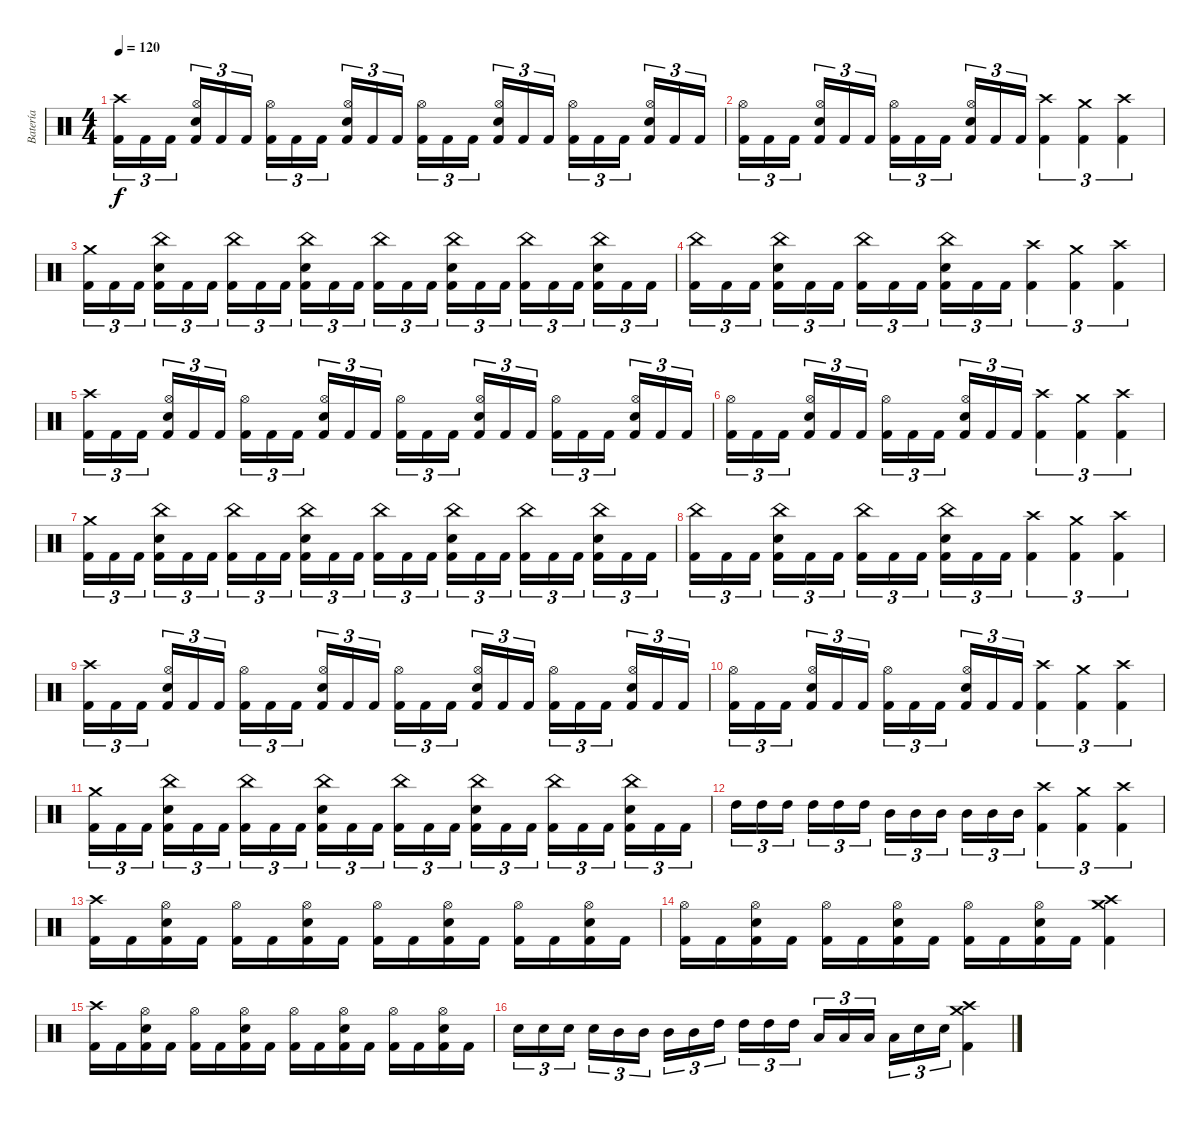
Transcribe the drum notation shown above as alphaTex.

\track ("Batería" "Batería") {instrument percussion}
\staff {score}
\articulation defaults
\ts (4 4)
\tempo 120
\clef neutral
\ks c
("Kick (hit) 2" "Crash high (hit)").16{tu (3 2) dy f} "Kick (hit) 2".16{tu (3 2)} "Kick (hit) 2".16{tu (3 2)} ("Kick (hit) 2" "Hi-Hat (open)" "Snare (hit) 2").16{tu (3 2)} "Kick (hit) 2".16{tu (3 2)} "Kick (hit) 2".16{tu (3 2)} ("Kick (hit) 2" "Hi-Hat (open)").16{tu (3 2)} "Kick (hit) 2".16{tu (3 2)} "Kick (hit) 2".16{tu (3 2)} ("Kick (hit) 2" "Hi-Hat (open)" "Snare (hit) 2").16{tu (3 2)} "Kick (hit) 2".16{tu (3 2)} "Kick (hit) 2".16{tu (3 2)} ("Kick (hit) 2" "Hi-Hat (open)").16{tu (3 2)} "Kick (hit) 2".16{tu (3 2)} "Kick (hit) 2".16{tu (3 2)} ("Kick (hit) 2" "Hi-Hat (open)" "Snare (hit) 2").16{tu (3 2)} "Kick (hit) 2".16{tu (3 2)} "Kick (hit) 2".16{tu (3 2)} ("Kick (hit) 2" "Hi-Hat (open)").16{tu (3 2)} "Kick (hit) 2".16{tu (3 2)} "Kick (hit) 2".16{tu (3 2)} ("Kick (hit) 2" "Hi-Hat (open)" "Snare (hit) 2").16{tu (3 2)} "Kick (hit) 2".16{tu (3 2)} "Kick (hit) 2".16{tu (3 2)} |
("Kick (hit) 2" "Hi-Hat (open)").16{tu (3 2)} "Kick (hit) 2".16{tu (3 2)} "Kick (hit) 2".16{tu (3 2)} ("Kick (hit) 2" "Hi-Hat (open)" "Snare (hit) 2").16{tu (3 2)} "Kick (hit) 2".16{tu (3 2)} "Kick (hit) 2".16{tu (3 2)} ("Kick (hit) 2" "Hi-Hat (open)").16{tu (3 2)} "Kick (hit) 2".16{tu (3 2)} "Kick (hit) 2".16{tu (3 2)} ("Kick (hit) 2" "Hi-Hat (open)" "Snare (hit) 2").16{tu (3 2)} "Kick (hit) 2".16{tu (3 2)} "Kick (hit) 2".16{tu (3 2)} ("Crash high (hit)" "Kick (hit) 2").4{tu (3 2)} ("Crash medium (hit)" "Kick (hit) 2").4{tu (3 2)} ("Crash high (hit)" "Kick (hit) 2").4{tu (3 2)} |
("Kick (hit) 2" "Crash medium (hit)").16{tu (3 2)} "Kick (hit) 2".16{tu (3 2)} "Kick (hit) 2".16{tu (3 2)} ("Kick (hit) 2" "China (hit)" "Snare (hit) 2").16{tu (3 2)} "Kick (hit) 2".16{tu (3 2)} "Kick (hit) 2".16{tu (3 2)} ("Kick (hit) 2" "China (hit)").16{tu (3 2)} "Kick (hit) 2".16{tu (3 2)} "Kick (hit) 2".16{tu (3 2)} ("Kick (hit) 2" "China (hit)" "Snare (hit) 2").16{tu (3 2)} "Kick (hit) 2".16{tu (3 2)} "Kick (hit) 2".16{tu (3 2)} ("Kick (hit) 2" "China (hit)").16{tu (3 2)} "Kick (hit) 2".16{tu (3 2)} "Kick (hit) 2".16{tu (3 2)} ("Kick (hit) 2" "China (hit)" "Snare (hit) 2").16{tu (3 2)} "Kick (hit) 2".16{tu (3 2)} "Kick (hit) 2".16{tu (3 2)} ("Kick (hit) 2" "China (hit)").16{tu (3 2)} "Kick (hit) 2".16{tu (3 2)} "Kick (hit) 2".16{tu (3 2)} ("Kick (hit) 2" "China (hit)" "Snare (hit) 2").16{tu (3 2)} "Kick (hit) 2".16{tu (3 2)} "Kick (hit) 2".16{tu (3 2)} |
("Kick (hit) 2" "China (hit)").16{tu (3 2)} "Kick (hit) 2".16{tu (3 2)} "Kick (hit) 2".16{tu (3 2)} ("Kick (hit) 2" "China (hit)" "Snare (hit) 2").16{tu (3 2)} "Kick (hit) 2".16{tu (3 2)} "Kick (hit) 2".16{tu (3 2)} ("Kick (hit) 2" "China (hit)").16{tu (3 2)} "Kick (hit) 2".16{tu (3 2)} "Kick (hit) 2".16{tu (3 2)} ("Kick (hit) 2" "China (hit)" "Snare (hit) 2").16{tu (3 2)} "Kick (hit) 2".16{tu (3 2)} "Kick (hit) 2".16{tu (3 2)} ("Crash high (hit)" "Kick (hit) 2").4{tu (3 2)} ("Crash medium (hit)" "Kick (hit) 2").4{tu (3 2)} ("Crash high (hit)" "Kick (hit) 2").4{tu (3 2)} |
("Kick (hit) 2" "Crash high (hit)").16{tu (3 2)} "Kick (hit) 2".16{tu (3 2)} "Kick (hit) 2".16{tu (3 2)} ("Kick (hit) 2" "Hi-Hat (open)" "Snare (hit) 2").16{tu (3 2)} "Kick (hit) 2".16{tu (3 2)} "Kick (hit) 2".16{tu (3 2)} ("Kick (hit) 2" "Hi-Hat (open)").16{tu (3 2)} "Kick (hit) 2".16{tu (3 2)} "Kick (hit) 2".16{tu (3 2)} ("Kick (hit) 2" "Hi-Hat (open)" "Snare (hit) 2").16{tu (3 2)} "Kick (hit) 2".16{tu (3 2)} "Kick (hit) 2".16{tu (3 2)} ("Kick (hit) 2" "Hi-Hat (open)").16{tu (3 2)} "Kick (hit) 2".16{tu (3 2)} "Kick (hit) 2".16{tu (3 2)} ("Kick (hit) 2" "Hi-Hat (open)" "Snare (hit) 2").16{tu (3 2)} "Kick (hit) 2".16{tu (3 2)} "Kick (hit) 2".16{tu (3 2)} ("Kick (hit) 2" "Hi-Hat (open)").16{tu (3 2)} "Kick (hit) 2".16{tu (3 2)} "Kick (hit) 2".16{tu (3 2)} ("Kick (hit) 2" "Hi-Hat (open)" "Snare (hit) 2").16{tu (3 2)} "Kick (hit) 2".16{tu (3 2)} "Kick (hit) 2".16{tu (3 2)} |
("Kick (hit) 2" "Hi-Hat (open)").16{tu (3 2)} "Kick (hit) 2".16{tu (3 2)} "Kick (hit) 2".16{tu (3 2)} ("Kick (hit) 2" "Hi-Hat (open)" "Snare (hit) 2").16{tu (3 2)} "Kick (hit) 2".16{tu (3 2)} "Kick (hit) 2".16{tu (3 2)} ("Kick (hit) 2" "Hi-Hat (open)").16{tu (3 2)} "Kick (hit) 2".16{tu (3 2)} "Kick (hit) 2".16{tu (3 2)} ("Kick (hit) 2" "Hi-Hat (open)" "Snare (hit) 2").16{tu (3 2)} "Kick (hit) 2".16{tu (3 2)} "Kick (hit) 2".16{tu (3 2)} ("Crash high (hit)" "Kick (hit) 2").4{tu (3 2)} ("Crash medium (hit)" "Kick (hit) 2").4{tu (3 2)} ("Crash high (hit)" "Kick (hit) 2").4{tu (3 2)} |
("Kick (hit) 2" "Crash medium (hit)").16{tu (3 2)} "Kick (hit) 2".16{tu (3 2)} "Kick (hit) 2".16{tu (3 2)} ("Kick (hit) 2" "China (hit)" "Snare (hit) 2").16{tu (3 2)} "Kick (hit) 2".16{tu (3 2)} "Kick (hit) 2".16{tu (3 2)} ("Kick (hit) 2" "China (hit)").16{tu (3 2)} "Kick (hit) 2".16{tu (3 2)} "Kick (hit) 2".16{tu (3 2)} ("Kick (hit) 2" "China (hit)" "Snare (hit) 2").16{tu (3 2)} "Kick (hit) 2".16{tu (3 2)} "Kick (hit) 2".16{tu (3 2)} ("Kick (hit) 2" "China (hit)").16{tu (3 2)} "Kick (hit) 2".16{tu (3 2)} "Kick (hit) 2".16{tu (3 2)} ("Kick (hit) 2" "China (hit)" "Snare (hit) 2").16{tu (3 2)} "Kick (hit) 2".16{tu (3 2)} "Kick (hit) 2".16{tu (3 2)} ("Kick (hit) 2" "China (hit)").16{tu (3 2)} "Kick (hit) 2".16{tu (3 2)} "Kick (hit) 2".16{tu (3 2)} ("Kick (hit) 2" "China (hit)" "Snare (hit) 2").16{tu (3 2)} "Kick (hit) 2".16{tu (3 2)} "Kick (hit) 2".16{tu (3 2)} |
("Kick (hit) 2" "China (hit)").16{tu (3 2)} "Kick (hit) 2".16{tu (3 2)} "Kick (hit) 2".16{tu (3 2)} ("Kick (hit) 2" "China (hit)" "Snare (hit) 2").16{tu (3 2)} "Kick (hit) 2".16{tu (3 2)} "Kick (hit) 2".16{tu (3 2)} ("Kick (hit) 2" "China (hit)").16{tu (3 2)} "Kick (hit) 2".16{tu (3 2)} "Kick (hit) 2".16{tu (3 2)} ("Kick (hit) 2" "China (hit)" "Snare (hit) 2").16{tu (3 2)} "Kick (hit) 2".16{tu (3 2)} "Kick (hit) 2".16{tu (3 2)} ("Crash high (hit)" "Kick (hit) 2").4{tu (3 2)} ("Crash medium (hit)" "Kick (hit) 2").4{tu (3 2)} ("Crash high (hit)" "Kick (hit) 2").4{tu (3 2)} |
("Kick (hit) 2" "Crash high (hit)").16{tu (3 2)} "Kick (hit) 2".16{tu (3 2)} "Kick (hit) 2".16{tu (3 2)} ("Kick (hit) 2" "Hi-Hat (open)" "Snare (hit) 2").16{tu (3 2)} "Kick (hit) 2".16{tu (3 2)} "Kick (hit) 2".16{tu (3 2)} ("Kick (hit) 2" "Hi-Hat (open)").16{tu (3 2)} "Kick (hit) 2".16{tu (3 2)} "Kick (hit) 2".16{tu (3 2)} ("Kick (hit) 2" "Hi-Hat (open)" "Snare (hit) 2").16{tu (3 2)} "Kick (hit) 2".16{tu (3 2)} "Kick (hit) 2".16{tu (3 2)} ("Kick (hit) 2" "Hi-Hat (open)").16{tu (3 2)} "Kick (hit) 2".16{tu (3 2)} "Kick (hit) 2".16{tu (3 2)} ("Kick (hit) 2" "Hi-Hat (open)" "Snare (hit) 2").16{tu (3 2)} "Kick (hit) 2".16{tu (3 2)} "Kick (hit) 2".16{tu (3 2)} ("Kick (hit) 2" "Hi-Hat (open)").16{tu (3 2)} "Kick (hit) 2".16{tu (3 2)} "Kick (hit) 2".16{tu (3 2)} ("Kick (hit) 2" "Hi-Hat (open)" "Snare (hit) 2").16{tu (3 2)} "Kick (hit) 2".16{tu (3 2)} "Kick (hit) 2".16{tu (3 2)} |
("Kick (hit) 2" "Hi-Hat (open)").16{tu (3 2)} "Kick (hit) 2".16{tu (3 2)} "Kick (hit) 2".16{tu (3 2)} ("Kick (hit) 2" "Hi-Hat (open)" "Snare (hit) 2").16{tu (3 2)} "Kick (hit) 2".16{tu (3 2)} "Kick (hit) 2".16{tu (3 2)} ("Kick (hit) 2" "Hi-Hat (open)").16{tu (3 2)} "Kick (hit) 2".16{tu (3 2)} "Kick (hit) 2".16{tu (3 2)} ("Kick (hit) 2" "Hi-Hat (open)" "Snare (hit) 2").16{tu (3 2)} "Kick (hit) 2".16{tu (3 2)} "Kick (hit) 2".16{tu (3 2)} ("Crash high (hit)" "Kick (hit) 2").4{tu (3 2)} ("Crash medium (hit)" "Kick (hit) 2").4{tu (3 2)} ("Crash high (hit)" "Kick (hit) 2").4{tu (3 2)} |
("Kick (hit) 2" "Crash medium (hit)").16{tu (3 2)} "Kick (hit) 2".16{tu (3 2)} "Kick (hit) 2".16{tu (3 2)} ("Kick (hit) 2" "China (hit)" "Snare (hit) 2").16{tu (3 2)} "Kick (hit) 2".16{tu (3 2)} "Kick (hit) 2".16{tu (3 2)} ("Kick (hit) 2" "China (hit)").16{tu (3 2)} "Kick (hit) 2".16{tu (3 2)} "Kick (hit) 2".16{tu (3 2)} ("Kick (hit) 2" "China (hit)" "Snare (hit) 2").16{tu (3 2)} "Kick (hit) 2".16{tu (3 2)} "Kick (hit) 2".16{tu (3 2)} ("Kick (hit) 2" "China (hit)").16{tu (3 2)} "Kick (hit) 2".16{tu (3 2)} "Kick (hit) 2".16{tu (3 2)} ("Kick (hit) 2" "China (hit)" "Snare (hit) 2").16{tu (3 2)} "Kick (hit) 2".16{tu (3 2)} "Kick (hit) 2".16{tu (3 2)} ("Kick (hit) 2" "China (hit)").16{tu (3 2)} "Kick (hit) 2".16{tu (3 2)} "Kick (hit) 2".16{tu (3 2)} ("Kick (hit) 2" "China (hit)" "Snare (hit) 2").16{tu (3 2)} "Kick (hit) 2".16{tu (3 2)} "Kick (hit) 2".16{tu (3 2)} |
"High Tom (hit)".16{tu (3 2)} "High Tom (hit)".16{tu (3 2)} "High Tom (hit)".16{tu (3 2)} "High Tom (hit)".16{tu (3 2)} "High Tom (hit)".16{tu (3 2)} "High Tom (hit)".16{tu (3 2)} "Mid Tom (hit)".16{tu (3 2)} "Mid Tom (hit)".16{tu (3 2)} "Mid Tom (hit)".16{tu (3 2)} "Mid Tom (hit)".16{tu (3 2)} "Mid Tom (hit)".16{tu (3 2)} "Mid Tom (hit)".16{tu (3 2)} ("Crash high (hit)" "Kick (hit) 2").4{tu (3 2)} ("Crash medium (hit)" "Kick (hit) 2").4{tu (3 2)} ("Crash high (hit)" "Kick (hit) 2").4{tu (3 2)} |
("Kick (hit) 2" "Crash high (hit)").16 "Kick (hit) 2".16 ("Kick (hit) 2" "Hi-Hat (open)" "Snare (hit) 2").16 "Kick (hit) 2".16 ("Kick (hit) 2" "Hi-Hat (open)").16 "Kick (hit) 2".16 ("Kick (hit) 2" "Hi-Hat (open)" "Snare (hit) 2").16 "Kick (hit) 2".16 ("Kick (hit) 2" "Hi-Hat (open)").16 "Kick (hit) 2".16 ("Kick (hit) 2" "Hi-Hat (open)" "Snare (hit) 2").16 "Kick (hit) 2".16 ("Kick (hit) 2" "Hi-Hat (open)").16 "Kick (hit) 2".16 ("Kick (hit) 2" "Hi-Hat (open)" "Snare (hit) 2").16 "Kick (hit) 2".16 |
("Kick (hit) 2" "Hi-Hat (open)").16 "Kick (hit) 2".16 ("Kick (hit) 2" "Hi-Hat (open)" "Snare (hit) 2").16 "Kick (hit) 2".16 ("Kick (hit) 2" "Hi-Hat (open)").16 "Kick (hit) 2".16 ("Kick (hit) 2" "Hi-Hat (open)" "Snare (hit) 2").16 "Kick (hit) 2".16 ("Kick (hit) 2" "Hi-Hat (open)").16 "Kick (hit) 2".16 ("Kick (hit) 2" "Hi-Hat (open)" "Snare (hit) 2").16 "Kick (hit) 2".16 ("Crash high (hit)" "Crash medium (hit)" "Kick (hit) 2").4 |
("Kick (hit) 2" "Crash high (hit)").16 "Kick (hit) 2".16 ("Kick (hit) 2" "Hi-Hat (open)" "Snare (hit) 2").16 "Kick (hit) 2".16 ("Kick (hit) 2" "Hi-Hat (open)").16 "Kick (hit) 2".16 ("Kick (hit) 2" "Hi-Hat (open)" "Snare (hit) 2").16 "Kick (hit) 2".16 ("Kick (hit) 2" "Hi-Hat (open)").16 "Kick (hit) 2".16 ("Kick (hit) 2" "Hi-Hat (open)" "Snare (hit) 2").16 "Kick (hit) 2".16 ("Kick (hit) 2" "Hi-Hat (open)").16 "Kick (hit) 2".16 ("Kick (hit) 2" "Hi-Hat (open)" "Snare (hit) 2").16 "Kick (hit) 2".16 |
"Snare (hit) 2".16{tu (3 2)} "Snare (hit) 2".16{tu (3 2)} "Snare (hit) 2".16{tu (3 2)} "Snare (hit) 2".16{tu (3 2)} "Mid Tom (hit)".16{tu (3 2)} "Mid Tom (hit)".16{tu (3 2)} "Mid Tom (hit)".16{tu (3 2)} "Mid Tom (hit)".16{tu (3 2)} "High Tom (hit)".16{tu (3 2)} "High Tom (hit)".16{tu (3 2)} "High Tom (hit)".16{tu (3 2)} "High Tom (hit)".16{tu (3 2)} "Low Tom (hit)".16{tu (3 2)} "Low Tom (hit)".16{tu (3 2)} "Low Tom (hit)".16{tu (3 2)} "Low Tom (hit)".16{tu (3 2)} "Snare (hit) 2".16{tu (3 2)} "Snare (hit) 2".16{tu (3 2)} ("Crash high (hit)" "Kick (hit) 2" "Crash medium (hit)").4
